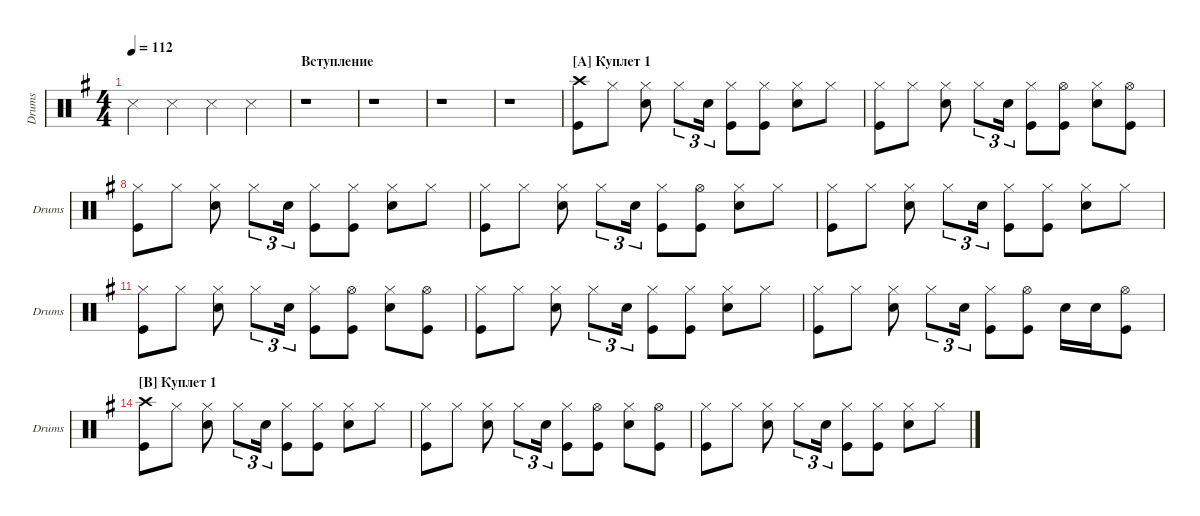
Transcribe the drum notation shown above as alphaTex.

\defaultSystemsLayout 4
\hideDynamics
\bracketExtendMode groupsimilarinstruments
\singleTrackTrackNamePolicy allsystems
\multiTrackTrackNamePolicy allsystems
\otherSystemsTrackNameOrientation horizontal
\defaultBarNumberDisplay FirstOfSystem
\track ("Drums" "Drums") {instrument percussion}
\staff {score}
\articulation defaults
\ts (4 4)
\tempo 112
\clef neutral
\scale
0.0863309
\ks eminor "Snare (side stick) 3".4{dy mf} "Snare (side stick) 3".4 "Snare (side stick) 3".4 "Snare (side stick) 3".4
|
\section ("" "Вступление")
\scale
0.0295763 r.1 |
\scale
0.0295763 r.1 |
\scale
0.0295763 r.1 |
\scale
0.0295763 r.1 |
\section ("A" "Куплет 1")
\scale
0.159073 ("Kick (hit)" "Crash high (hit)").8 "Hi-Hat (closed)".8 ("Hi-Hat (closed)" "Snare (hit) 2").8 "Hi-Hat (closed)".8{tu (3 2)} "Snare (hit) 2".16{tu (3 2)} ("Hi-Hat (closed)" "Kick (hit)").8 ("Hi-Hat (closed)" "Kick (hit)").8 ("Hi-Hat (closed)" "Snare (hit) 2").8 "Hi-Hat (closed)".8 |
\scale
0.159073 ("Kick (hit)" "Hi-Hat (closed)").8 "Hi-Hat (closed)".8 ("Hi-Hat (closed)" "Snare (hit) 2").8 "Hi-Hat (closed)".8{tu (3 2)} "Snare (hit) 2".16{tu (3 2)} ("Hi-Hat (closed)" "Kick (hit)").8 ("Hi-Hat (open)" "Kick (hit)").8 ("Hi-Hat (closed)" "Snare (hit) 2").8 ("Hi-Hat (open)" "Kick (hit)").8 |
\scale
0.159073 ("Kick (hit)" "Hi-Hat (closed)").8 "Hi-Hat (closed)".8 ("Hi-Hat (closed)" "Snare (hit) 2").8 "Hi-Hat (closed)".8{tu (3 2)} "Snare (hit) 2".16{tu (3 2)} ("Hi-Hat (closed)" "Kick (hit)").8 ("Hi-Hat (closed)" "Kick (hit)").8 ("Hi-Hat (closed)" "Snare (hit) 2").8 "Hi-Hat (closed)".8 |
\scale
0.159073 ("Kick (hit)" "Hi-Hat (closed)").8 "Hi-Hat (closed)".8 ("Hi-Hat (closed)" "Snare (hit) 2").8 "Hi-Hat (closed)".8{tu (3 2)} "Snare (hit) 2".16{tu (3 2)} ("Hi-Hat (closed)" "Kick (hit)").8 ("Hi-Hat (open)" "Kick (hit)").8 ("Hi-Hat (closed)" "Snare (hit) 2").8 "Hi-Hat (closed)".8 |
\scale
0.159073 ("Kick (hit)" "Hi-Hat (closed)").8 "Hi-Hat (closed)".8 ("Hi-Hat (closed)" "Snare (hit) 2").8 "Hi-Hat (closed)".8{tu (3 2)} "Snare (hit) 2".16{tu (3 2)} ("Hi-Hat (closed)" "Kick (hit)").8 ("Hi-Hat (closed)" "Kick (hit)").8 ("Hi-Hat (closed)" "Snare (hit) 2").8 "Hi-Hat (closed)".8 |
("Kick (hit)" "Hi-Hat (closed)").8 "Hi-Hat (closed)".8 ("Hi-Hat (closed)" "Snare (hit) 2").8 "Hi-Hat (closed)".8{tu (3 2)} "Snare (hit) 2".16{tu (3 2)} ("Hi-Hat (closed)" "Kick (hit)").8 ("Hi-Hat (open)" "Kick (hit)").8 ("Hi-Hat (closed)" "Snare (hit) 2").8 ("Hi-Hat (open)" "Kick (hit)").8 |
("Kick (hit)" "Hi-Hat (closed)").8 "Hi-Hat (closed)".8 ("Hi-Hat (closed)" "Snare (hit) 2").8 "Hi-Hat (closed)".8{tu (3 2)} "Snare (hit) 2".16{tu (3 2)} ("Hi-Hat (closed)" "Kick (hit)").8 ("Hi-Hat (closed)" "Kick (hit)").8 ("Hi-Hat (closed)" "Snare (hit) 2").8 "Hi-Hat (closed)".8 |
("Kick (hit)" "Hi-Hat (closed)").8 "Hi-Hat (closed)".8 ("Hi-Hat (closed)" "Snare (hit) 2").8 "Hi-Hat (closed)".8{tu (3 2)} "Snare (hit) 2".16{tu (3 2)} ("Hi-Hat (closed)" "Kick (hit)").8 ("Hi-Hat (open)" "Kick (hit)").8 "Snare (hit) 2".16 "Snare (hit) 2".16 ("Hi-Hat (open)" "Kick (hit)").8 |
\section ("B" "Куплет 1")
("Kick (hit)" "Crash high (hit)").8 "Hi-Hat (closed)".8 ("Hi-Hat (closed)" "Snare (hit) 2").8 "Hi-Hat (closed)".8{tu (3 2)} "Snare (hit) 2".16{tu (3 2)} ("Hi-Hat (closed)" "Kick (hit)").8 ("Hi-Hat (closed)" "Kick (hit)").8 ("Hi-Hat (closed)" "Snare (hit) 2").8 "Hi-Hat (closed)".8 |
("Kick (hit)" "Hi-Hat (closed)").8 "Hi-Hat (closed)".8 ("Hi-Hat (closed)" "Snare (hit) 2").8 "Hi-Hat (closed)".8{tu (3 2)} "Snare (hit) 2".16{tu (3 2)} ("Hi-Hat (closed)" "Kick (hit)").8 ("Hi-Hat (open)" "Kick (hit)").8 ("Hi-Hat (closed)" "Snare (hit) 2").8 ("Hi-Hat (open)" "Kick (hit)").8 |
("Kick (hit)" "Hi-Hat (closed)").8 "Hi-Hat (closed)".8 ("Hi-Hat (closed)" "Snare (hit) 2").8 "Hi-Hat (closed)".8{tu (3 2)} "Snare (hit) 2".16{tu (3 2)} ("Hi-Hat (closed)" "Kick (hit)").8 ("Hi-Hat (closed)" "Kick (hit)").8 ("Hi-Hat (closed)" "Snare (hit) 2").8 "Hi-Hat (closed)".8
